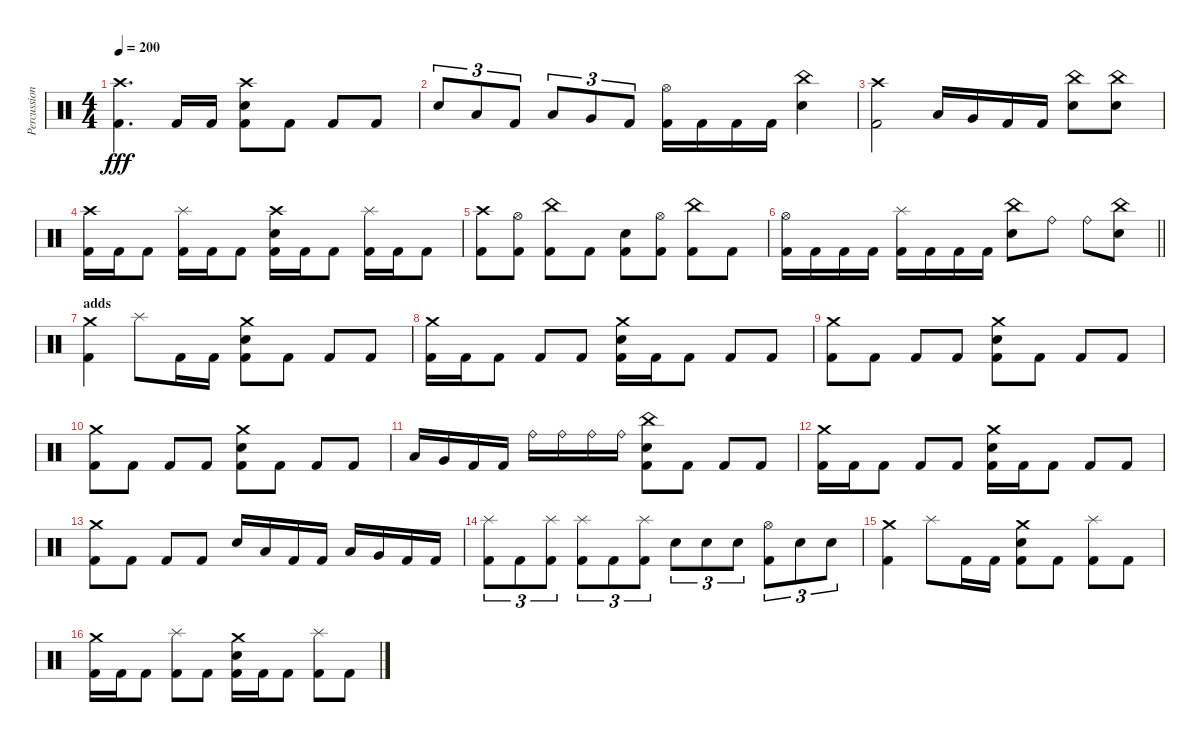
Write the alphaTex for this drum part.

\track ("Percussion" "Percussion") {instrument percussion}
\staff {score}
\articulation defaults
\ts (4 4)
\tempo 200
\clef neutral
\ks c
("Crash high (hit)" "Kick (hit) 2").4{d dy fff} "Kick (hit) 2".16 "Kick (hit) 2".16 ("Crash high (hit)" "Snare (hit) 2" "Kick (hit) 2").8 "Kick (hit) 2".8 "Kick (hit) 2".8 "Kick (hit) 2".8 |
"Snare (hit) 2".8{tu (3 2)} "Low Tom (hit)".8{tu (3 2)} "Kick (hit) 2".8{tu (3 2)} "Low Floor Tom (hit)".8{tu (3 2)} "Very Low Tom (hit)".8{tu (3 2)} "Kick (hit) 2".8{tu (3 2)} ("Hi-Hat (open)" "Kick (hit) 2").16 "Kick (hit) 2".16 "Kick (hit) 2".16 "Kick (hit) 2".16 ("China (hit)" "Snare (hit) 2").4 |
("Crash high (hit)" "Kick (hit) 2").2 "Low Floor Tom (hit)".16 "Very Low Tom (hit)".16 "Kick (hit) 2".16 "Kick (hit) 2".16 ("China (hit)" "Snare (hit) 2").8 ("China (hit)" "Snare (hit) 2").8 |
("Crash high (hit)" "Kick (hit) 2").16 "Kick (hit) 2".16 "Kick (hit) 2".8 ("Splash (hit)" "Kick (hit) 2").16 "Kick (hit) 2".16 "Kick (hit) 2".8 ("Crash high (hit)" "Snare (hit) 2" "Kick (hit) 2").16 "Kick (hit) 2".16 "Kick (hit) 2".8 ("Splash (hit)" "Kick (hit) 2").16 "Kick (hit) 2".16 "Kick (hit) 2".8 |
("Crash high (hit)" "Kick (hit) 2").8 ("Hi-Hat (open)" "Kick (hit) 2").8 ("China (hit)" "Kick (hit) 2").8 "Kick (hit) 2".8 ("Snare (hit) 2" "Kick (hit) 2").8 ("Hi-Hat (open)" "Kick (hit) 2").8 ("China (hit)" "Kick (hit) 2").8 "Kick (hit) 2".8 |
\barLineRight lightlight
("Hi-Hat (open)" "Kick (hit) 2").16 "Kick (hit) 2".16 "Kick (hit) 2".16 "Kick (hit) 2".16 ("Splash (hit)" "Kick (hit) 2").16 "Kick (hit) 2".16 "Kick (hit) 2".16 "Kick (hit) 2".16 ("China (hit)" "Snare (hit) 2").8 "Ride (bell)".8 "Ride (bell)".8 ("China (hit)" "Snare (hit) 2").8 |
\section ("" "adds")
("Crash medium (hit)" "Kick (hit) 2").4 "Splash (hit)".8 "Kick (hit) 2".16 "Kick (hit) 2".16 ("Crash medium (hit)" "Snare (hit) 2" "Kick (hit) 2").8 "Kick (hit) 2".8 "Kick (hit) 2".8 "Kick (hit) 2".8 |
("Crash medium (hit)" "Kick (hit) 2").16 "Kick (hit) 2".16 "Kick (hit) 2".8 "Kick (hit) 2".8 "Kick (hit) 2".8 ("Crash medium (hit)" "Snare (hit) 2" "Kick (hit) 2").16 "Kick (hit) 2".16 "Kick (hit) 2".8 "Kick (hit) 2".8 "Kick (hit) 2".8 |
("Crash medium (hit)" "Kick (hit) 2").8 "Kick (hit) 2".8 "Kick (hit) 2".8 "Kick (hit) 2".8 ("Crash medium (hit)" "Snare (hit) 2" "Kick (hit) 2").8 "Kick (hit) 2".8 "Kick (hit) 2".8 "Kick (hit) 2".8 |
("Crash medium (hit)" "Kick (hit) 2").8 "Kick (hit) 2".8 "Kick (hit) 2".8 "Kick (hit) 2".8 ("Crash medium (hit)" "Snare (hit) 2" "Kick (hit) 2").8 "Kick (hit) 2".8 "Kick (hit) 2".8 "Kick (hit) 2".8 |
"Low Floor Tom (hit)".16 "Very Low Tom (hit)".16 "Kick (hit) 2".16 "Kick (hit) 2".16 "Ride (bell)".16 "Ride (bell)".16 "Ride (bell)".16 "Ride (bell)".16 ("China (hit)" "Snare (hit) 2" "Kick (hit) 2").8 "Kick (hit) 2".8 "Kick (hit) 2".8 "Kick (hit) 2".8 |
("Crash medium (hit)" "Kick (hit) 2").16 "Kick (hit) 2".16 "Kick (hit) 2".8 "Kick (hit) 2".8 "Kick (hit) 2".8 ("Crash medium (hit)" "Snare (hit) 2" "Kick (hit) 2").16 "Kick (hit) 2".16 "Kick (hit) 2".8 "Kick (hit) 2".8 "Kick (hit) 2".8 |
("Crash medium (hit)" "Kick (hit) 2").8 "Kick (hit) 2".8 "Kick (hit) 2".8 "Kick (hit) 2".8 "Snare (hit) 2".16 "Low Tom (hit)".16 "Kick (hit) 2".16 "Kick (hit) 2".16 "Low Floor Tom (hit)".16 "Very Low Tom (hit)".16 "Kick (hit) 2".16 "Kick (hit) 2".16 |
("Splash (hit)" "Kick (hit) 2").8{tu (3 2)} "Kick (hit) 2".8{tu (3 2)} ("Splash (hit)" "Kick (hit) 2").8{tu (3 2)} ("Splash (hit)" "Kick (hit) 2").8{tu (3 2)} "Kick (hit) 2".8{tu (3 2)} ("Splash (hit)" "Kick (hit) 2").8{tu (3 2)} "Snare (hit) 2".8{tu (3 2)} "Snare (hit) 2".8{tu (3 2)} "Snare (hit) 2".8{tu (3 2)} ("Hi-Hat (open)" "Kick (hit) 2").8{tu (3 2)} "Snare (hit) 2".8{tu (3 2)} "Snare (hit) 2".8{tu (3 2)} |
("Crash medium (hit)" "Kick (hit) 2").4 "Splash (hit)".8 "Kick (hit) 2".16 "Kick (hit) 2".16 ("Crash medium (hit)" "Snare (hit) 2" "Kick (hit) 2").8 "Kick (hit) 2".8 ("Splash (hit)" "Kick (hit) 2").8 "Kick (hit) 2".8 |
("Crash medium (hit)" "Kick (hit) 2").16 "Kick (hit) 2".16 "Kick (hit) 2".8 ("Splash (hit)" "Kick (hit) 2").8 "Kick (hit) 2".8 ("Crash medium (hit)" "Snare (hit) 2" "Kick (hit) 2").16 "Kick (hit) 2".16 "Kick (hit) 2".8 ("Splash (hit)" "Kick (hit) 2").8 "Kick (hit) 2".8
